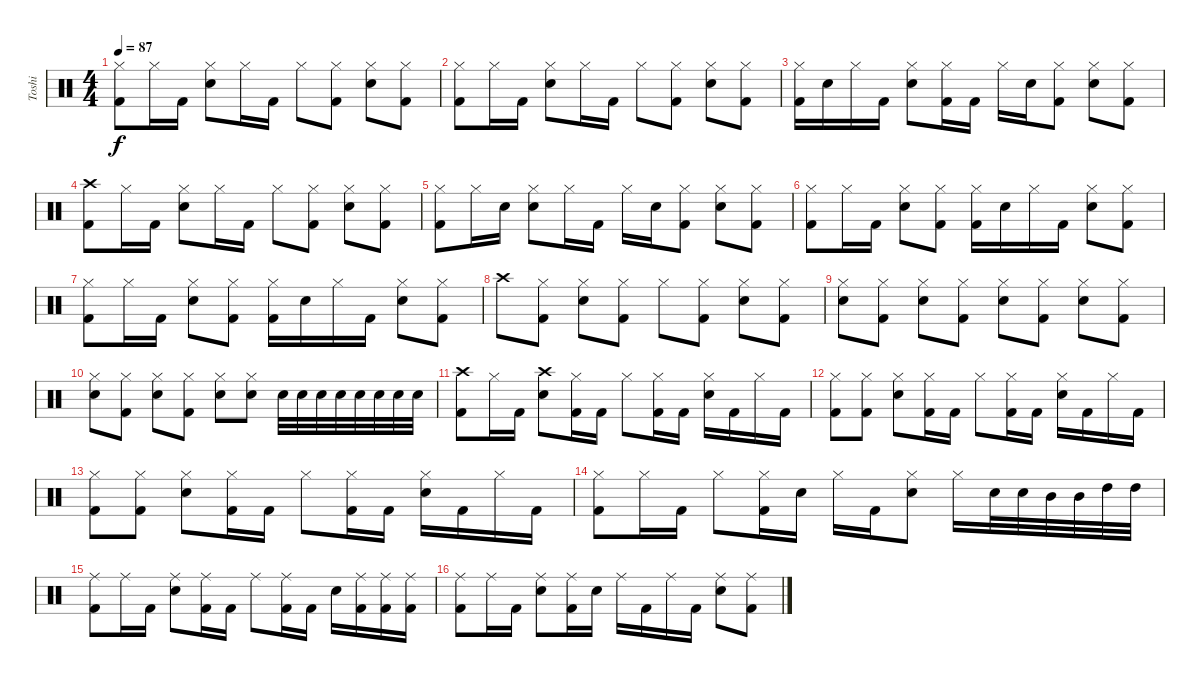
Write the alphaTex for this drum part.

\track ("Toshi" "Toshi") {instrument percussion}
\staff {score}
\articulation defaults
\ts (4 4)
\tempo 87
\clef neutral
\ks c
("Hi-Hat (closed)" "Kick (hit) 2").8{dy f} "Hi-Hat (closed)".16 "Kick (hit) 2".16 ("Hi-Hat (closed)" "Snare (hit) 2").8 "Hi-Hat (closed)".16 "Kick (hit) 2".16 "Hi-Hat (closed)".8 ("Hi-Hat (closed)" "Kick (hit) 2").8 ("Hi-Hat (closed)" "Snare (hit) 2").8 ("Hi-Hat (closed)" "Kick (hit) 2").8 |
("Hi-Hat (closed)" "Kick (hit) 2").8 "Hi-Hat (closed)".16 "Kick (hit) 2".16 ("Hi-Hat (closed)" "Snare (hit) 2").8 "Hi-Hat (closed)".16 "Kick (hit) 2".16 "Hi-Hat (closed)".8 ("Hi-Hat (closed)" "Kick (hit) 2").8 ("Hi-Hat (closed)" "Snare (hit) 2").8 ("Hi-Hat (closed)" "Kick (hit) 2").8 |
("Hi-Hat (closed)" "Kick (hit) 2").16 "Snare (hit) 2".16 "Hi-Hat (closed)".16 "Kick (hit) 2".16 ("Hi-Hat (closed)" "Snare (hit) 2").8 ("Hi-Hat (closed)" "Kick (hit) 2").16 "Kick (hit) 2".16 "Hi-Hat (closed)".16 "Snare (hit) 2".16 ("Hi-Hat (closed)" "Kick (hit) 2").8 ("Hi-Hat (closed)" "Snare (hit) 2").8 ("Hi-Hat (closed)" "Kick (hit) 2").8 |
("Crash high (hit)" "Kick (hit) 2").8 "Hi-Hat (closed)".16 "Kick (hit) 2".16 ("Hi-Hat (closed)" "Snare (hit) 2").8 "Hi-Hat (closed)".16 "Kick (hit) 2".16 "Hi-Hat (closed)".8 ("Hi-Hat (closed)" "Kick (hit) 2").8 ("Hi-Hat (closed)" "Snare (hit) 2").8 ("Hi-Hat (closed)" "Kick (hit) 2").8 |
("Hi-Hat (closed)" "Kick (hit) 2").8 "Hi-Hat (closed)".16 "Snare (hit) 2".16 ("Hi-Hat (closed)" "Snare (hit) 2").8 "Hi-Hat (closed)".16 "Kick (hit) 2".16 "Hi-Hat (closed)".16 "Snare (hit) 2".16 ("Hi-Hat (closed)" "Kick (hit) 2").8 ("Hi-Hat (closed)" "Snare (hit) 2").8 ("Hi-Hat (closed)" "Kick (hit) 2").8 |
("Hi-Hat (closed)" "Kick (hit) 2").8 "Hi-Hat (closed)".16 "Kick (hit) 2".16 ("Hi-Hat (closed)" "Snare (hit) 2").8 ("Hi-Hat (closed)" "Kick (hit) 2").8 ("Hi-Hat (closed)" "Kick (hit) 2").16 "Snare (hit) 2".16 "Hi-Hat (closed)".16 "Kick (hit) 2".16 ("Hi-Hat (closed)" "Snare (hit) 2").8 ("Hi-Hat (closed)" "Kick (hit) 2").8 |
("Hi-Hat (closed)" "Kick (hit) 2").8 "Hi-Hat (closed)".16 "Kick (hit) 2".16 ("Hi-Hat (closed)" "Snare (hit) 2").8 ("Hi-Hat (closed)" "Kick (hit) 2").8 ("Hi-Hat (closed)" "Kick (hit) 2").16 "Snare (hit) 2".16 "Hi-Hat (closed)".16 "Kick (hit) 2".16 ("Hi-Hat (closed)" "Snare (hit) 2").8 ("Hi-Hat (closed)" "Kick (hit) 2").8 |
"Crash high (hit)".8 ("Hi-Hat (closed)" "Kick (hit) 2").8 ("Hi-Hat (closed)" "Snare (hit) 2").8 ("Hi-Hat (closed)" "Kick (hit) 2").8 "Hi-Hat (closed)".8 ("Hi-Hat (closed)" "Kick (hit) 2").8 ("Hi-Hat (closed)" "Snare (hit) 2").8 ("Hi-Hat (closed)" "Kick (hit) 2").8 |
("Hi-Hat (closed)" "Snare (hit) 2").8 ("Hi-Hat (closed)" "Kick (hit) 2").8 ("Hi-Hat (closed)" "Snare (hit) 2").8 ("Hi-Hat (closed)" "Kick (hit) 2").8 ("Hi-Hat (closed)" "Snare (hit) 2").8 ("Hi-Hat (closed)" "Kick (hit) 2").8 ("Hi-Hat (closed)" "Snare (hit) 2").8 ("Hi-Hat (closed)" "Kick (hit) 2").8 |
("Hi-Hat (closed)" "Snare (hit) 2").8 ("Hi-Hat (closed)" "Kick (hit) 2").8 ("Hi-Hat (closed)" "Snare (hit) 2").8 ("Hi-Hat (closed)" "Kick (hit) 2").8 ("Hi-Hat (closed)" "Snare (hit) 2").8 ("Hi-Hat (closed)" "Snare (hit) 2").8 "Snare (hit) 2".32 "Snare (hit) 2".32 "Snare (hit) 2".32 "Snare (hit) 2".32 "Snare (hit) 2".32 "Snare (hit) 2".32 "Snare (hit) 2".32 "Snare (hit) 2".32 |
("Crash high (hit)" "Kick (hit) 2").8 "Hi-Hat (closed)".16 "Kick (hit) 2".16 ("Crash high (hit)" "Snare (hit) 2").8 ("Hi-Hat (closed)" "Kick (hit) 2").16 "Kick (hit) 2".16 "Hi-Hat (closed)".8 ("Hi-Hat (closed)" "Kick (hit) 2").16 "Kick (hit) 2".16 ("Hi-Hat (closed)" "Snare (hit) 2").16 "Kick (hit) 2".16 "Hi-Hat (closed)".16 "Kick (hit) 2".16 |
("Hi-Hat (closed)" "Kick (hit) 2").8 ("Hi-Hat (closed)" "Kick (hit) 2").8 ("Hi-Hat (closed)" "Snare (hit) 2").8 ("Hi-Hat (closed)" "Kick (hit) 2").16 "Kick (hit) 2".16 "Hi-Hat (closed)".8 ("Hi-Hat (closed)" "Kick (hit) 2").16 "Kick (hit) 2".16 ("Hi-Hat (closed)" "Snare (hit) 2").16 "Kick (hit) 2".16 "Hi-Hat (closed)".16 "Kick (hit) 2".16 |
("Hi-Hat (closed)" "Kick (hit) 2").8 ("Hi-Hat (closed)" "Kick (hit) 2").8 ("Hi-Hat (closed)" "Snare (hit) 2").8 ("Hi-Hat (closed)" "Kick (hit) 2").16 "Kick (hit) 2".16 "Hi-Hat (closed)".8 ("Hi-Hat (closed)" "Kick (hit) 2").16 "Kick (hit) 2".16 ("Hi-Hat (closed)" "Snare (hit) 2").16 "Kick (hit) 2".16 "Hi-Hat (closed)".16 "Kick (hit) 2".16 |
("Hi-Hat (closed)" "Kick (hit) 2").8 "Hi-Hat (closed)".16 "Kick (hit) 2".16 "Hi-Hat (closed)".8 ("Hi-Hat (closed)" "Kick (hit) 2").16 "Snare (hit) 2".16 "Hi-Hat (closed)".16 "Kick (hit) 2".16 ("Hi-Hat (closed)" "Snare (hit) 2").8 "Hi-Hat (closed)".16 "Snare (hit) 2".32 "Snare (hit) 2".32 "Mid Tom (hit)".32 "Mid Tom (hit)".32 "High Tom (hit)".32 "High Tom (hit)".32 |
("Ride (middle)" "Kick (hit) 2").8 "Ride (middle)".16 "Kick (hit) 2".16 ("Ride (middle)" "Snare (hit) 2").8 ("Ride (middle)" "Kick (hit) 2").16 "Kick (hit) 2".16 "Ride (middle)".8 ("Ride (middle)" "Kick (hit) 2").16 "Kick (hit) 2".16 "Snare (hit) 2".16 ("Ride (middle)" "Kick (hit) 2").16 ("Ride (middle)" "Kick (hit) 2").16 ("Ride (middle)" "Kick (hit) 2").16 |
("Ride (middle)" "Kick (hit) 2").8 "Ride (middle)".16 "Kick (hit) 2".16 ("Ride (middle)" "Snare (hit) 2").8 ("Ride (middle)" "Kick (hit) 2").16 "Snare (hit) 2".16 "Ride (middle)".16 "Kick (hit) 2".16 "Ride (middle)".16 "Kick (hit) 2".16 ("Ride (middle)" "Snare (hit) 2").8 ("Ride (middle)" "Kick (hit) 2").8
